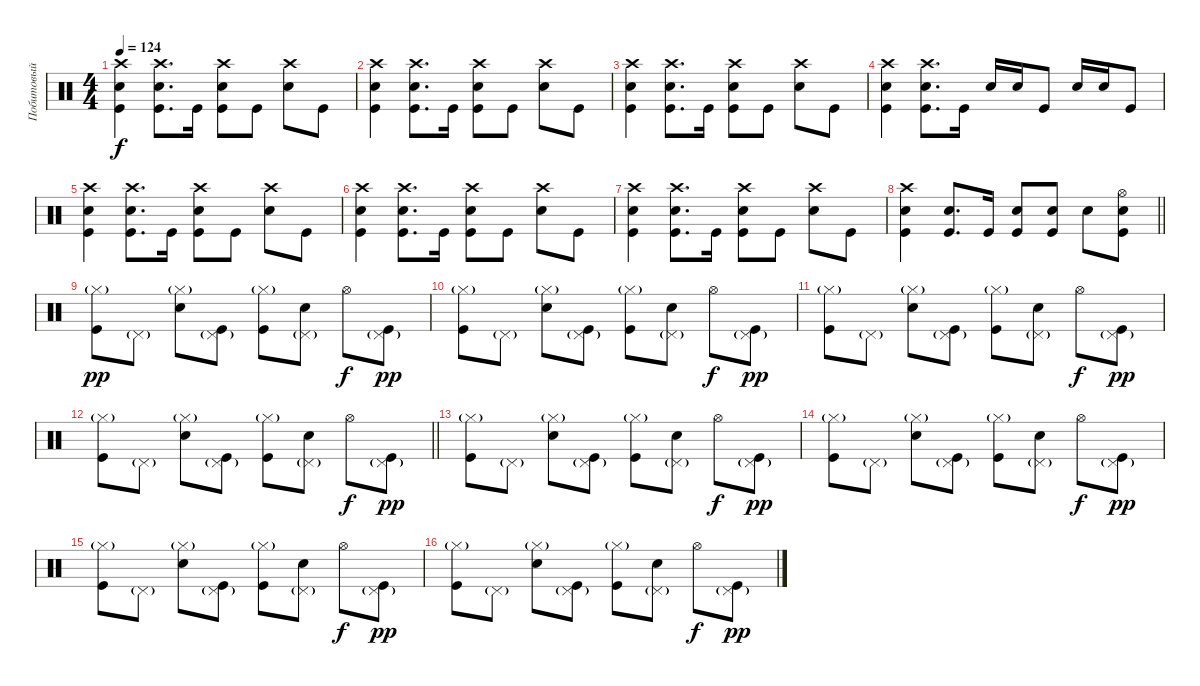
\track ("Побитовый" "Побитовый") {instrument percussion}
\staff {score}
\articulation defaults
\ts (4 4)
\tempo 124
\clef neutral
\ks c
("Crash high (hit)" "Snare (hit) 2" "Kick (hit)").4{dy f} ("Crash high (hit)" "Snare (hit) 2" "Kick (hit)").8{d} "Kick (hit)".16 ("Crash high (hit)" "Snare (hit) 2" "Kick (hit)").8 "Kick (hit)".8 ("Crash high (hit)" "Snare (hit) 2").8 "Kick (hit)".8 |
("Crash high (hit)" "Snare (hit) 2" "Kick (hit)").4 ("Crash high (hit)" "Snare (hit) 2" "Kick (hit)").8{d} "Kick (hit)".16 ("Crash high (hit)" "Snare (hit) 2" "Kick (hit)").8 "Kick (hit)".8 ("Crash high (hit)" "Snare (hit) 2").8 "Kick (hit)".8 |
("Crash high (hit)" "Snare (hit) 2" "Kick (hit)").4 ("Crash high (hit)" "Snare (hit) 2" "Kick (hit)").8{d} "Kick (hit)".16 ("Crash high (hit)" "Snare (hit) 2" "Kick (hit)").8 "Kick (hit)".8 ("Crash high (hit)" "Snare (hit) 2").8 "Kick (hit)".8 |
("Crash high (hit)" "Snare (hit) 2" "Kick (hit)").4 ("Crash high (hit)" "Snare (hit) 2" "Kick (hit)").8{d} "Kick (hit)".16 "Snare (hit) 2".16 "Snare (hit) 2".16 "Kick (hit)".8 "Snare (hit) 2".16 "Snare (hit) 2".16 "Kick (hit)".8 |
("Crash high (hit)" "Snare (hit) 2" "Kick (hit)").4 ("Crash high (hit)" "Snare (hit) 2" "Kick (hit)").8{d} "Kick (hit)".16 ("Crash high (hit)" "Snare (hit) 2" "Kick (hit)").8 "Kick (hit)".8 ("Crash high (hit)" "Snare (hit) 2").8 "Kick (hit)".8 |
("Crash high (hit)" "Snare (hit) 2" "Kick (hit)").4 ("Crash high (hit)" "Snare (hit) 2" "Kick (hit)").8{d} "Kick (hit)".16 ("Crash high (hit)" "Snare (hit) 2" "Kick (hit)").8 "Kick (hit)".8 ("Crash high (hit)" "Snare (hit) 2").8 "Kick (hit)".8 |
("Crash high (hit)" "Snare (hit) 2" "Kick (hit)").4 ("Crash high (hit)" "Snare (hit) 2" "Kick (hit)").8{d} "Kick (hit)".16 ("Crash high (hit)" "Snare (hit) 2" "Kick (hit)").8 "Kick (hit)".8 ("Crash high (hit)" "Snare (hit) 2").8 "Kick (hit)".8 |
\barLineRight lightlight
("Crash high (hit)" "Snare (hit) 2" "Kick (hit)").4 ("Snare (hit) 2" "Kick (hit)").8{d} "Kick (hit)".16 ("Snare (hit) 2" "Kick (hit)").8 ("Snare (hit) 2" "Kick (hit)").8 "Snare (hit) 2".8 ("Hi-Hat (open)" "Snare (hit) 2" "Kick (hit)").8 |
("Hi-Hat (closed)"{g} "Kick (hit)").8{dy pp} "Pedal Hi-Hat (hit)"{g}.8 ("Hi-Hat (closed)"{g} "Snare (hit) 2").8 ("Pedal Hi-Hat (hit)"{g} "Kick (hit)").8 ("Hi-Hat (closed)"{g} "Kick (hit)").8 ("Pedal Hi-Hat (hit)"{g} "Snare (hit) 2").8 "Hi-Hat (open)".8{dy f} ("Pedal Hi-Hat (hit)"{g} "Kick (hit)").8{dy pp} |
("Hi-Hat (closed)"{g} "Kick (hit)").8 "Pedal Hi-Hat (hit)"{g}.8 ("Hi-Hat (closed)"{g} "Snare (hit) 2").8 ("Pedal Hi-Hat (hit)"{g} "Kick (hit)").8 ("Hi-Hat (closed)"{g} "Kick (hit)").8 ("Pedal Hi-Hat (hit)"{g} "Snare (hit) 2").8 "Hi-Hat (open)".8{dy f} ("Pedal Hi-Hat (hit)"{g} "Kick (hit)").8{dy pp} |
("Hi-Hat (closed)"{g} "Kick (hit)").8 "Pedal Hi-Hat (hit)"{g}.8 ("Hi-Hat (closed)"{g} "Snare (hit) 2").8 ("Pedal Hi-Hat (hit)"{g} "Kick (hit)").8 ("Hi-Hat (closed)"{g} "Kick (hit)").8 ("Pedal Hi-Hat (hit)"{g} "Snare (hit) 2").8 "Hi-Hat (open)".8{dy f} ("Pedal Hi-Hat (hit)"{g} "Kick (hit)").8{dy pp} |
\barLineRight lightlight
("Hi-Hat (closed)"{g} "Kick (hit)").8 "Pedal Hi-Hat (hit)"{g}.8 ("Hi-Hat (closed)"{g} "Snare (hit) 2").8 ("Pedal Hi-Hat (hit)"{g} "Kick (hit)").8 ("Hi-Hat (closed)"{g} "Kick (hit)").8 ("Pedal Hi-Hat (hit)"{g} "Snare (hit) 2").8 "Hi-Hat (open)".8{dy f} ("Pedal Hi-Hat (hit)"{g} "Kick (hit)").8{dy pp} |
("Hi-Hat (closed)"{g} "Kick (hit)").8 "Pedal Hi-Hat (hit)"{g}.8 ("Hi-Hat (closed)"{g} "Snare (hit) 2").8 ("Pedal Hi-Hat (hit)"{g} "Kick (hit)").8 ("Hi-Hat (closed)"{g} "Kick (hit)").8 ("Pedal Hi-Hat (hit)"{g} "Snare (hit) 2").8 "Hi-Hat (open)".8{dy f} ("Pedal Hi-Hat (hit)"{g} "Kick (hit)").8{dy pp} |
("Hi-Hat (closed)"{g} "Kick (hit)").8 "Pedal Hi-Hat (hit)"{g}.8 ("Hi-Hat (closed)"{g} "Snare (hit) 2").8 ("Pedal Hi-Hat (hit)"{g} "Kick (hit)").8 ("Hi-Hat (closed)"{g} "Kick (hit)").8 ("Pedal Hi-Hat (hit)"{g} "Snare (hit) 2").8 "Hi-Hat (open)".8{dy f} ("Pedal Hi-Hat (hit)"{g} "Kick (hit)").8{dy pp} |
("Hi-Hat (closed)"{g} "Kick (hit)").8 "Pedal Hi-Hat (hit)"{g}.8 ("Hi-Hat (closed)"{g} "Snare (hit) 2").8 ("Pedal Hi-Hat (hit)"{g} "Kick (hit)").8 ("Hi-Hat (closed)"{g} "Kick (hit)").8 ("Pedal Hi-Hat (hit)"{g} "Snare (hit) 2").8 "Hi-Hat (open)".8{dy f} ("Pedal Hi-Hat (hit)"{g} "Kick (hit)").8{dy pp} |
("Hi-Hat (closed)"{g} "Kick (hit)").8 "Pedal Hi-Hat (hit)"{g}.8 ("Hi-Hat (closed)"{g} "Snare (hit) 2").8 ("Pedal Hi-Hat (hit)"{g} "Kick (hit)").8 ("Hi-Hat (closed)"{g} "Kick (hit)").8 ("Pedal Hi-Hat (hit)"{g} "Snare (hit) 2").8 "Hi-Hat (open)".8{dy f} ("Pedal Hi-Hat (hit)"{g} "Kick (hit)").8{dy pp}
